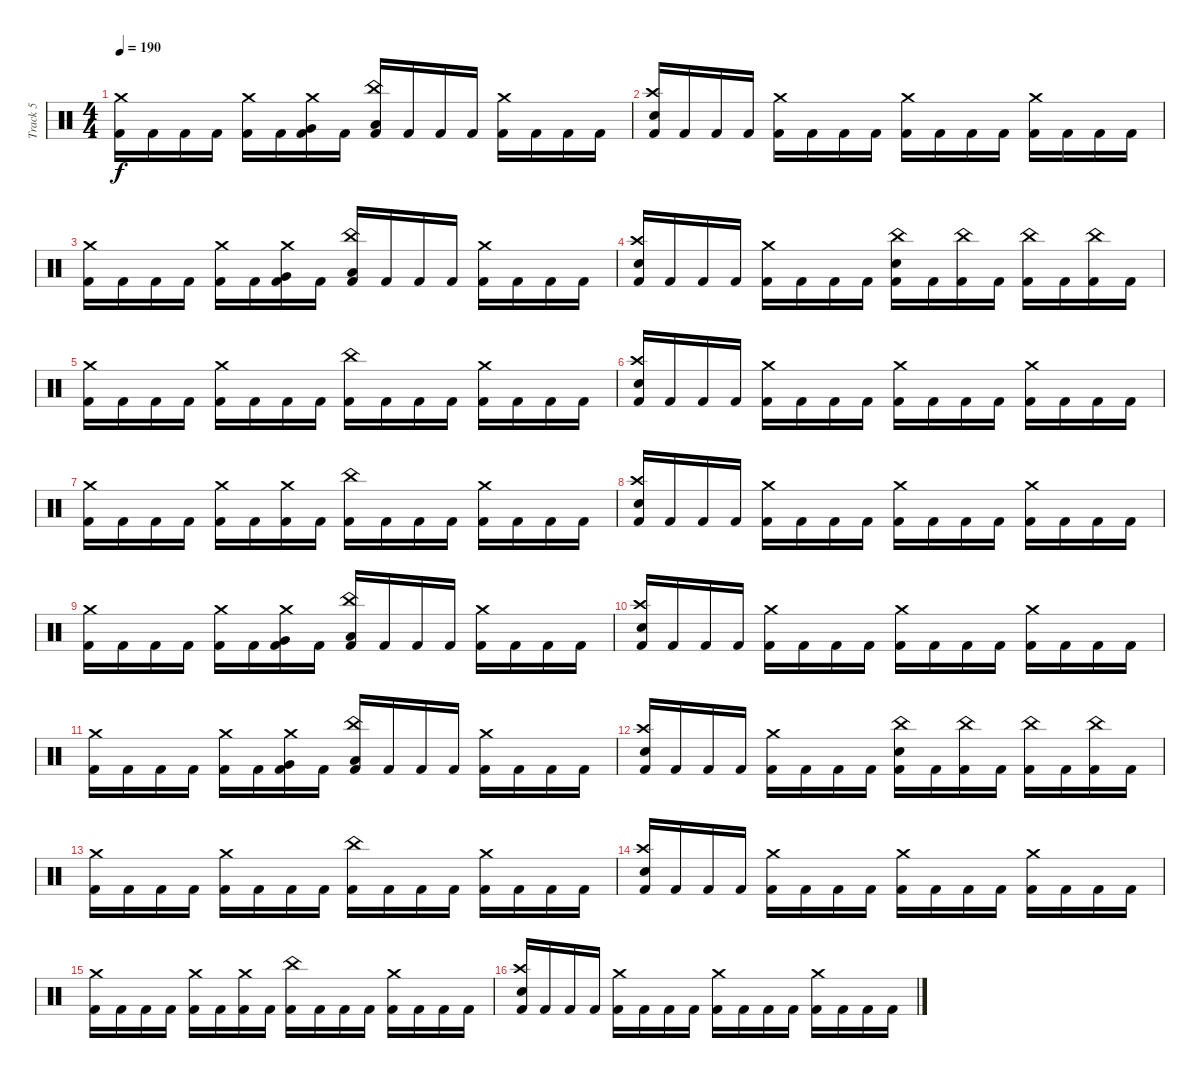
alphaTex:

\track ("Track 5" "Track 5") {instrument percussion}
\staff {score}
\articulation defaults
\ts (4 4)
\tempo 190
\clef neutral
\ks c
("Crash medium (hit)" "Kick (hit) 2").16{dy f} "Kick (hit) 2".16 "Kick (hit) 2".16 "Kick (hit) 2".16 ("Crash medium (hit)" "Kick (hit) 2").16 "Kick (hit) 2".16 ("Crash medium (hit)" "Very Low Tom (hit)" "Kick (hit) 2").16 "Kick (hit) 2".16 ("China (hit)" "Low Floor Tom (hit)" "Kick (hit) 2").16 "Kick (hit) 2".16 "Kick (hit) 2".16 "Kick (hit) 2".16 ("Crash medium (hit)" "Kick (hit) 2").16 "Kick (hit) 2".16 "Kick (hit) 2".16 "Kick (hit) 2".16 |
("Crash high (hit)" "Electric Snare (hit)" "Kick (hit) 2").16 "Kick (hit) 2".16 "Kick (hit) 2".16 "Kick (hit) 2".16 ("Crash medium (hit)" "Kick (hit) 2").16 "Kick (hit) 2".16 "Kick (hit) 2".16 "Kick (hit) 2".16 ("Crash medium (hit)" "Kick (hit) 2").16 "Kick (hit) 2".16 "Kick (hit) 2".16 "Kick (hit) 2".16 ("Crash medium (hit)" "Kick (hit) 2").16 "Kick (hit) 2".16 "Kick (hit) 2".16 "Kick (hit) 2".16 |
("Crash medium (hit)" "Kick (hit) 2").16 "Kick (hit) 2".16 "Kick (hit) 2".16 "Kick (hit) 2".16 ("Crash medium (hit)" "Kick (hit) 2").16 "Kick (hit) 2".16 ("Crash medium (hit)" "Very Low Tom (hit)" "Kick (hit) 2").16 "Kick (hit) 2".16 ("China (hit)" "Low Floor Tom (hit)" "Kick (hit) 2").16 "Kick (hit) 2".16 "Kick (hit) 2".16 "Kick (hit) 2".16 ("Crash medium (hit)" "Kick (hit) 2").16 "Kick (hit) 2".16 "Kick (hit) 2".16 "Kick (hit) 2".16 |
("Crash high (hit)" "Electric Snare (hit)" "Kick (hit) 2").16 "Kick (hit) 2".16 "Kick (hit) 2".16 "Kick (hit) 2".16 ("Crash medium (hit)" "Kick (hit) 2").16 "Kick (hit) 2".16 "Kick (hit) 2".16 "Kick (hit) 2".16 ("China (hit)" "Electric Snare (hit)" "Kick (hit) 2").16 "Kick (hit) 2".16 ("China (hit)" "Kick (hit) 2").16 "Kick (hit) 2".16 ("China (hit)" "Kick (hit) 2").16 "Kick (hit) 2".16 ("China (hit)" "Kick (hit) 2").16 "Kick (hit) 2".16 |
("Crash medium (hit)" "Kick (hit) 2").16 "Kick (hit) 2".16 "Kick (hit) 2".16 "Kick (hit) 2".16 ("Crash medium (hit)" "Kick (hit) 2").16 "Kick (hit) 2".16 "Kick (hit) 2".16 "Kick (hit) 2".16 ("China (hit)" "Kick (hit) 2").16 "Kick (hit) 2".16 "Kick (hit) 2".16 "Kick (hit) 2".16 ("Crash medium (hit)" "Kick (hit) 2").16 "Kick (hit) 2".16 "Kick (hit) 2".16 "Kick (hit) 2".16 |
("Crash high (hit)" "Electric Snare (hit)" "Kick (hit) 2").16 "Kick (hit) 2".16 "Kick (hit) 2".16 "Kick (hit) 2".16 ("Crash medium (hit)" "Kick (hit) 2").16 "Kick (hit) 2".16 "Kick (hit) 2".16 "Kick (hit) 2".16 ("Crash medium (hit)" "Kick (hit) 2").16 "Kick (hit) 2".16 "Kick (hit) 2".16 "Kick (hit) 2".16 ("Crash medium (hit)" "Kick (hit) 2").16 "Kick (hit) 2".16 "Kick (hit) 2".16 "Kick (hit) 2".16 |
("Crash medium (hit)" "Kick (hit) 2").16 "Kick (hit) 2".16 "Kick (hit) 2".16 "Kick (hit) 2".16 ("Crash medium (hit)" "Kick (hit) 2").16 "Kick (hit) 2".16 ("Crash medium (hit)" "Kick (hit) 2").16 "Kick (hit) 2".16 ("China (hit)" "Kick (hit) 2").16 "Kick (hit) 2".16 "Kick (hit) 2".16 "Kick (hit) 2".16 ("Crash medium (hit)" "Kick (hit) 2").16 "Kick (hit) 2".16 "Kick (hit) 2".16 "Kick (hit) 2".16 |
("Crash high (hit)" "Electric Snare (hit)" "Kick (hit) 2").16 "Kick (hit) 2".16 "Kick (hit) 2".16 "Kick (hit) 2".16 ("Crash medium (hit)" "Kick (hit) 2").16 "Kick (hit) 2".16 "Kick (hit) 2".16 "Kick (hit) 2".16 ("Crash medium (hit)" "Kick (hit) 2").16 "Kick (hit) 2".16 "Kick (hit) 2".16 "Kick (hit) 2".16 ("Crash medium (hit)" "Kick (hit) 2").16 "Kick (hit) 2".16 "Kick (hit) 2".16 "Kick (hit) 2".16 |
("Crash medium (hit)" "Kick (hit) 2").16 "Kick (hit) 2".16 "Kick (hit) 2".16 "Kick (hit) 2".16 ("Crash medium (hit)" "Kick (hit) 2").16 "Kick (hit) 2".16 ("Crash medium (hit)" "Very Low Tom (hit)" "Kick (hit) 2").16 "Kick (hit) 2".16 ("China (hit)" "Low Floor Tom (hit)" "Kick (hit) 2").16 "Kick (hit) 2".16 "Kick (hit) 2".16 "Kick (hit) 2".16 ("Crash medium (hit)" "Kick (hit) 2").16 "Kick (hit) 2".16 "Kick (hit) 2".16 "Kick (hit) 2".16 |
("Crash high (hit)" "Electric Snare (hit)" "Kick (hit) 2").16 "Kick (hit) 2".16 "Kick (hit) 2".16 "Kick (hit) 2".16 ("Crash medium (hit)" "Kick (hit) 2").16 "Kick (hit) 2".16 "Kick (hit) 2".16 "Kick (hit) 2".16 ("Crash medium (hit)" "Kick (hit) 2").16 "Kick (hit) 2".16 "Kick (hit) 2".16 "Kick (hit) 2".16 ("Crash medium (hit)" "Kick (hit) 2").16 "Kick (hit) 2".16 "Kick (hit) 2".16 "Kick (hit) 2".16 |
("Crash medium (hit)" "Kick (hit) 2").16 "Kick (hit) 2".16 "Kick (hit) 2".16 "Kick (hit) 2".16 ("Crash medium (hit)" "Kick (hit) 2").16 "Kick (hit) 2".16 ("Crash medium (hit)" "Very Low Tom (hit)" "Kick (hit) 2").16 "Kick (hit) 2".16 ("China (hit)" "Low Floor Tom (hit)" "Kick (hit) 2").16 "Kick (hit) 2".16 "Kick (hit) 2".16 "Kick (hit) 2".16 ("Crash medium (hit)" "Kick (hit) 2").16 "Kick (hit) 2".16 "Kick (hit) 2".16 "Kick (hit) 2".16 |
("Crash high (hit)" "Electric Snare (hit)" "Kick (hit) 2").16 "Kick (hit) 2".16 "Kick (hit) 2".16 "Kick (hit) 2".16 ("Crash medium (hit)" "Kick (hit) 2").16 "Kick (hit) 2".16 "Kick (hit) 2".16 "Kick (hit) 2".16 ("China (hit)" "Electric Snare (hit)" "Kick (hit) 2").16 "Kick (hit) 2".16 ("China (hit)" "Kick (hit) 2").16 "Kick (hit) 2".16 ("China (hit)" "Kick (hit) 2").16 "Kick (hit) 2".16 ("China (hit)" "Kick (hit) 2").16 "Kick (hit) 2".16 |
("Crash medium (hit)" "Kick (hit) 2").16 "Kick (hit) 2".16 "Kick (hit) 2".16 "Kick (hit) 2".16 ("Crash medium (hit)" "Kick (hit) 2").16 "Kick (hit) 2".16 "Kick (hit) 2".16 "Kick (hit) 2".16 ("China (hit)" "Kick (hit) 2").16 "Kick (hit) 2".16 "Kick (hit) 2".16 "Kick (hit) 2".16 ("Crash medium (hit)" "Kick (hit) 2").16 "Kick (hit) 2".16 "Kick (hit) 2".16 "Kick (hit) 2".16 |
("Crash high (hit)" "Electric Snare (hit)" "Kick (hit) 2").16 "Kick (hit) 2".16 "Kick (hit) 2".16 "Kick (hit) 2".16 ("Crash medium (hit)" "Kick (hit) 2").16 "Kick (hit) 2".16 "Kick (hit) 2".16 "Kick (hit) 2".16 ("Crash medium (hit)" "Kick (hit) 2").16 "Kick (hit) 2".16 "Kick (hit) 2".16 "Kick (hit) 2".16 ("Crash medium (hit)" "Kick (hit) 2").16 "Kick (hit) 2".16 "Kick (hit) 2".16 "Kick (hit) 2".16 |
("Crash medium (hit)" "Kick (hit) 2").16 "Kick (hit) 2".16 "Kick (hit) 2".16 "Kick (hit) 2".16 ("Crash medium (hit)" "Kick (hit) 2").16 "Kick (hit) 2".16 ("Crash medium (hit)" "Kick (hit) 2").16 "Kick (hit) 2".16 ("China (hit)" "Kick (hit) 2").16 "Kick (hit) 2".16 "Kick (hit) 2".16 "Kick (hit) 2".16 ("Crash medium (hit)" "Kick (hit) 2").16 "Kick (hit) 2".16 "Kick (hit) 2".16 "Kick (hit) 2".16 |
("Crash high (hit)" "Electric Snare (hit)" "Kick (hit) 2").16 "Kick (hit) 2".16 "Kick (hit) 2".16 "Kick (hit) 2".16 ("Crash medium (hit)" "Kick (hit) 2").16 "Kick (hit) 2".16 "Kick (hit) 2".16 "Kick (hit) 2".16 ("Crash medium (hit)" "Kick (hit) 2").16 "Kick (hit) 2".16 "Kick (hit) 2".16 "Kick (hit) 2".16 ("Crash medium (hit)" "Kick (hit) 2").16 "Kick (hit) 2".16 "Kick (hit) 2".16 "Kick (hit) 2".16
